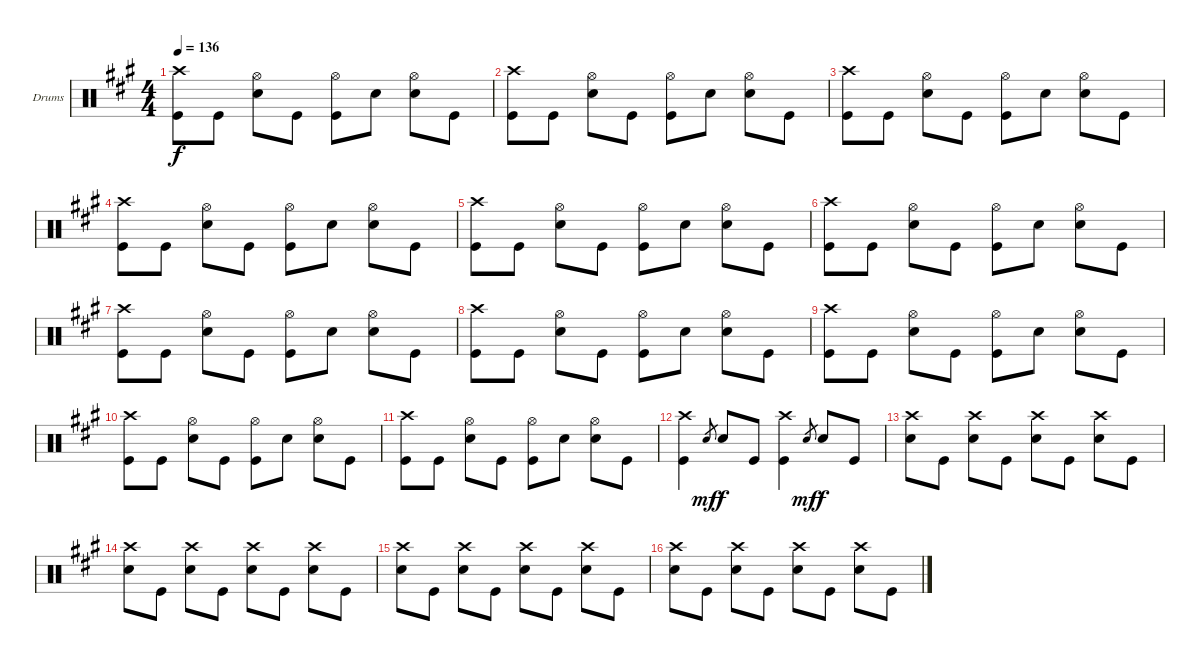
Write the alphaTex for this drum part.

\defaultSystemsLayout 4
\bracketExtendMode groupsimilarinstruments
\firstSystemTrackNameOrientation horizontal
\otherSystemsTrackNameOrientation horizontal
\track ("Drumkit" "Drums") {instrument percussion}
\staff {score}
\articulation defaults
\ts (4 4)
\tempo 136
\clef neutral
\scale
1.05801
\ks a
("Crash high (hit)" "Kick (hit)").8{dy f} "Kick (hit)".8 ("Hi-Hat (open)" "Snare (hit) 2").8 "Kick (hit)".8 ("Hi-Hat (open)" "Kick (hit)").8 "Snare (hit) 2".8 ("Hi-Hat (open)" "Snare (hit) 2").8 "Kick (hit)".8 |
\scale
0.941992 ("Crash high (hit)" "Kick (hit)").8 "Kick (hit)".8 ("Hi-Hat (open)" "Snare (hit) 2").8 "Kick (hit)".8 ("Hi-Hat (open)" "Kick (hit)").8 "Snare (hit) 2".8 ("Hi-Hat (open)" "Snare (hit) 2").8 "Kick (hit)".8 |
\scale
1.05801 ("Crash high (hit)" "Kick (hit)").8 "Kick (hit)".8 ("Hi-Hat (open)" "Snare (hit) 2").8 "Kick (hit)".8 ("Hi-Hat (open)" "Kick (hit)").8 "Snare (hit) 2".8 ("Hi-Hat (open)" "Snare (hit) 2").8 "Kick (hit)".8 |
\scale
0.941992 ("Crash high (hit)" "Kick (hit)").8 "Kick (hit)".8 ("Hi-Hat (open)" "Snare (hit) 2").8 "Kick (hit)".8 ("Hi-Hat (open)" "Kick (hit)").8 "Snare (hit) 2".8 ("Hi-Hat (open)" "Snare (hit) 2").8 "Kick (hit)".8 |
\scale
1.05801 ("Crash high (hit)" "Kick (hit)").8 "Kick (hit)".8 ("Hi-Hat (open)" "Snare (hit) 2").8 "Kick (hit)".8 ("Hi-Hat (open)" "Kick (hit)").8 "Snare (hit) 2".8 ("Hi-Hat (open)" "Snare (hit) 2").8 "Kick (hit)".8 |
\scale
0.941992 ("Crash high (hit)" "Kick (hit)").8 "Kick (hit)".8 ("Hi-Hat (open)" "Snare (hit) 2").8 "Kick (hit)".8 ("Hi-Hat (open)" "Kick (hit)").8 "Snare (hit) 2".8 ("Hi-Hat (open)" "Snare (hit) 2").8 "Kick (hit)".8 |
\scale
1.05801 ("Crash high (hit)" "Kick (hit)").8 "Kick (hit)".8 ("Hi-Hat (open)" "Snare (hit) 2").8 "Kick (hit)".8 ("Hi-Hat (open)" "Kick (hit)").8 "Snare (hit) 2".8 ("Hi-Hat (open)" "Snare (hit) 2").8 "Kick (hit)".8 |
\scale
0.941992 ("Crash high (hit)" "Kick (hit)").8 "Kick (hit)".8 ("Hi-Hat (open)" "Snare (hit) 2").8 "Kick (hit)".8 ("Hi-Hat (open)" "Kick (hit)").8 "Snare (hit) 2".8 ("Hi-Hat (open)" "Snare (hit) 2").8 "Kick (hit)".8 |
\scale
1.05801 ("Crash high (hit)" "Kick (hit)").8 "Kick (hit)".8 ("Hi-Hat (open)" "Snare (hit) 2").8 "Kick (hit)".8 ("Hi-Hat (open)" "Kick (hit)").8 "Snare (hit) 2".8 ("Hi-Hat (open)" "Snare (hit) 2").8 "Kick (hit)".8 |
\scale
0.941992 ("Crash high (hit)" "Kick (hit)").8 "Kick (hit)".8 ("Hi-Hat (open)" "Snare (hit) 2").8 "Kick (hit)".8 ("Hi-Hat (open)" "Kick (hit)").8 "Snare (hit) 2".8 ("Hi-Hat (open)" "Snare (hit) 2").8 "Kick (hit)".8 |
\scale
1.05801 ("Crash high (hit)" "Kick (hit)").8 "Kick (hit)".8 ("Hi-Hat (open)" "Snare (hit) 2").8 "Kick (hit)".8 ("Hi-Hat (open)" "Kick (hit)").8 "Snare (hit) 2".8 ("Hi-Hat (open)" "Snare (hit) 2").8 "Kick (hit)".8 |
\scale
0.941992 ("Kick (hit)" "Crash high (hit)").4 "Snare (hit) 2".8{gr dy mf} "Snare (hit) 2".8{dy f} "Kick (hit)".8 ("Kick (hit)" "Crash high (hit)").4 "Snare (hit) 2".8{gr dy mf} "Snare (hit) 2".8{dy f} "Kick (hit)".8 |
\scale
1.05801 ("Snare (hit) 2" "Crash high (hit)").8 "Kick (hit)".8 ("Snare (hit) 2" "Crash high (hit)").8 "Kick (hit)".8 ("Snare (hit) 2" "Crash high (hit)").8 "Kick (hit)".8 ("Snare (hit) 2" "Crash high (hit)").8 "Kick (hit)".8 |
\scale
0.941992 ("Snare (hit) 2" "Crash high (hit)").8 "Kick (hit)".8 ("Snare (hit) 2" "Crash high (hit)").8 "Kick (hit)".8 ("Snare (hit) 2" "Crash high (hit)").8 "Kick (hit)".8 ("Snare (hit) 2" "Crash high (hit)").8 "Kick (hit)".8 |
\scale
1.05801 ("Snare (hit) 2" "Crash high (hit)").8 "Kick (hit)".8 ("Snare (hit) 2" "Crash high (hit)").8 "Kick (hit)".8 ("Snare (hit) 2" "Crash high (hit)").8 "Kick (hit)".8 ("Snare (hit) 2" "Crash high (hit)").8 "Kick (hit)".8 |
\scale
0.941992 ("Snare (hit) 2" "Crash high (hit)").8 "Kick (hit)".8 ("Snare (hit) 2" "Crash high (hit)").8 "Kick (hit)".8 ("Snare (hit) 2" "Crash high (hit)").8 "Kick (hit)".8 ("Snare (hit) 2" "Crash high (hit)").8 "Kick (hit)".8
